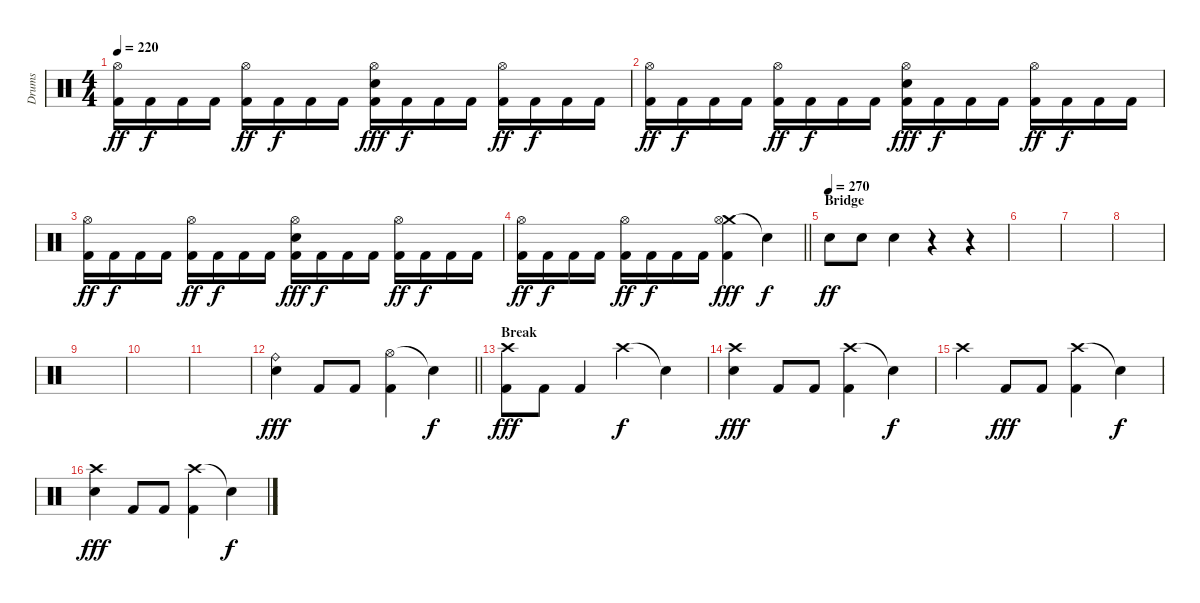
\track ("Drums" "Drums") {instrument percussion}
\staff {score}
\articulation defaults
\ts (4 4)
\tempo 220
\clef neutral
\ks c
("Hi-Hat (open)" "Kick (hit) 2").16{dy ff} "Kick (hit) 2".16{dy f} "Kick (hit) 2".16 "Kick (hit) 2".16 ("Hi-Hat (open)" "Kick (hit) 2").16{dy ff} "Kick (hit) 2".16{dy f} "Kick (hit) 2".16 "Kick (hit) 2".16 ("Hi-Hat (open)" "Snare (hit) 2" "Kick (hit) 2").16{dy fff} "Kick (hit) 2".16{dy f} "Kick (hit) 2".16 "Kick (hit) 2".16 ("Hi-Hat (open)" "Kick (hit) 2").16{dy ff} "Kick (hit) 2".16{dy f} "Kick (hit) 2".16 "Kick (hit) 2".16 |
("Hi-Hat (open)" "Kick (hit) 2").16{dy ff} "Kick (hit) 2".16{dy f} "Kick (hit) 2".16 "Kick (hit) 2".16 ("Hi-Hat (open)" "Kick (hit) 2").16{dy ff} "Kick (hit) 2".16{dy f} "Kick (hit) 2".16 "Kick (hit) 2".16 ("Hi-Hat (open)" "Snare (hit) 2" "Kick (hit) 2").16{dy fff} "Kick (hit) 2".16{dy f} "Kick (hit) 2".16 "Kick (hit) 2".16 ("Hi-Hat (open)" "Kick (hit) 2").16{dy ff} "Kick (hit) 2".16{dy f} "Kick (hit) 2".16 "Kick (hit) 2".16 |
("Hi-Hat (open)" "Kick (hit) 2").16{dy ff} "Kick (hit) 2".16{dy f} "Kick (hit) 2".16 "Kick (hit) 2".16 ("Hi-Hat (open)" "Kick (hit) 2").16{dy ff} "Kick (hit) 2".16{dy f} "Kick (hit) 2".16 "Kick (hit) 2".16 ("Hi-Hat (open)" "Snare (hit) 2" "Kick (hit) 2").16{dy fff} "Kick (hit) 2".16{dy f} "Kick (hit) 2".16 "Kick (hit) 2".16 ("Hi-Hat (open)" "Kick (hit) 2").16{dy ff} "Kick (hit) 2".16{dy f} "Kick (hit) 2".16 "Kick (hit) 2".16 |
\barLineRight lightlight
("Hi-Hat (open)" "Kick (hit) 2").16{dy ff} "Kick (hit) 2".16{dy f} "Kick (hit) 2".16 "Kick (hit) 2".16 ("Hi-Hat (open)" "Kick (hit) 2").16{dy ff} "Kick (hit) 2".16{dy f} "Kick (hit) 2".16 "Kick (hit) 2".16 ("Crash medium (hit)" "Hi-Hat (open)" "Kick (hit) 2").4{dy fff} "Snare (hit)"{t}.4{dy f} |
\section ("" "Bridge")
\tempo (270)
"Snare (hit) 2".8{dy ff} "Snare (hit) 2".8 "Snare (hit) 2".4 r.4 r.4 |
|
|
|
|
|
|
\barLineRight lightlight
("Ride (bell)" "Snare (hit) 2").4{dy fff} "Kick (hit) 2".8 "Kick (hit) 2".8 ("Hi-Hat (open)" "Kick (hit) 2").4 "Snare (hit)"{t}.4{dy f} |
\section ("" "Break")
("Crash high (hit)" "Kick (hit) 2").8{dy fff} "Kick (hit) 2".8 "Kick (hit) 2".4 "Crash high (hit)".4{dy f} "Snare (hit)"{t}.4 |
("Crash high (hit)" "Snare (hit) 2").4{dy fff} "Kick (hit) 2".8 "Kick (hit) 2".8 ("Crash high (hit)" "Kick (hit) 2").4 "Snare (hit)"{t}.4{dy f} |
"Crash high (hit)".4 "Kick (hit) 2".8{dy fff} "Kick (hit) 2".8 ("Crash high (hit)" "Kick (hit) 2").4 "Snare (hit)"{t}.4{dy f} |
("Crash high (hit)" "Snare (hit) 2").4{dy fff} "Kick (hit) 2".8 "Kick (hit) 2".8 ("Crash high (hit)" "Kick (hit) 2").4 "Snare (hit)"{t}.4{dy f}
